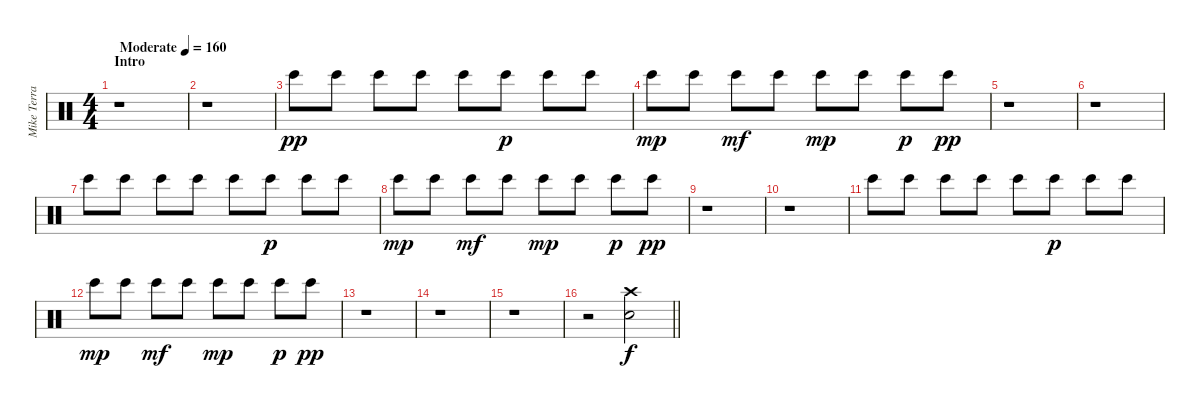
\track ("Mike Terrana" "Mike Terra") {instrument percussion}
\staff {score}
\articulation defaults
\ts (4 4)
\section ("" "Intro")
\tempo (160 "Moderate")
\clef neutral
\ks c
r.1{dy pp volume 6} |
r.1 |
"Bongo High (hit)".8 "Bongo High (hit)".8 "Bongo High (hit)".8 "Bongo High (hit)".8 "Bongo High (hit)".8 "Bongo High (hit)".8{dy p} "Bongo High (hit)".8 "Bongo High (hit)".8 |
"Bongo High (hit)".8{dy mp} "Bongo High (hit)".8 "Bongo High (hit)".8{dy mf} "Bongo High (hit)".8 "Bongo High (hit)".8{dy mp} "Bongo High (hit)".8 "Bongo High (hit)".8{dy p} "Bongo High (hit)".8{dy pp} |
r.1 |
r.1 |
"Bongo High (hit)".8 "Bongo High (hit)".8 "Bongo High (hit)".8 "Bongo High (hit)".8 "Bongo High (hit)".8 "Bongo High (hit)".8{dy p} "Bongo High (hit)".8 "Bongo High (hit)".8 |
"Bongo High (hit)".8{dy mp} "Bongo High (hit)".8 "Bongo High (hit)".8{dy mf} "Bongo High (hit)".8 "Bongo High (hit)".8{dy mp} "Bongo High (hit)".8 "Bongo High (hit)".8{dy p} "Bongo High (hit)".8{dy pp} |
r.1 |
r.1 |
"Bongo High (hit)".8 "Bongo High (hit)".8 "Bongo High (hit)".8 "Bongo High (hit)".8 "Bongo High (hit)".8 "Bongo High (hit)".8{dy p} "Bongo High (hit)".8 "Bongo High (hit)".8 |
"Bongo High (hit)".8{dy mp} "Bongo High (hit)".8 "Bongo High (hit)".8{dy mf} "Bongo High (hit)".8 "Bongo High (hit)".8{dy mp} "Bongo High (hit)".8 "Bongo High (hit)".8{dy p} "Bongo High (hit)".8{dy pp} |
r.1 |
r.1 |
r.1 |
\barLineRight lightlight
r.2{volume 13} ("Crash high (hit)" "Snare (hit) 2").2{dy f}
